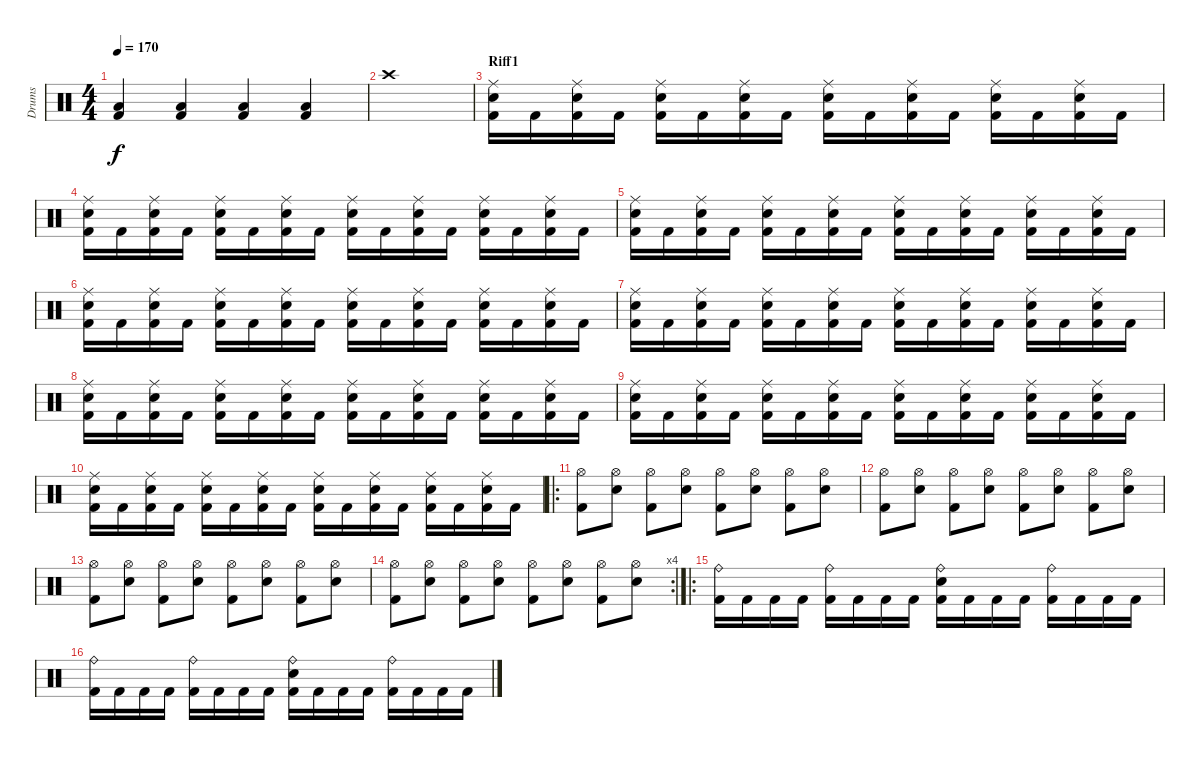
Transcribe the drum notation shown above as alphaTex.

\track ("Drums" "Drums") {instrument percussion}
\staff {score}
\articulation defaults
\ts (4 4)
\tempo 170
\clef neutral
\ks c
("Low Floor Tom (hit)" "Kick (hit) 2").4{dy f} ("Low Floor Tom (hit)" "Kick (hit) 2").4 ("Low Floor Tom (hit)" "Kick (hit) 2").4 ("Low Floor Tom (hit)" "Kick (hit) 2").4 |
"Crash high (hit)".1 |
\section ("" "Riff1")
("Kick (hit) 2" "Snare (hit) 2" "Ride (middle)").16 "Kick (hit) 2".16 ("Kick (hit) 2" "Snare (hit) 2" "Ride (middle)").16 "Kick (hit) 2".16 ("Kick (hit) 2" "Snare (hit) 2" "Ride (middle)").16 "Kick (hit) 2".16 ("Kick (hit) 2" "Snare (hit) 2" "Ride (middle)").16 "Kick (hit) 2".16 ("Kick (hit) 2" "Snare (hit) 2" "Ride (middle)").16 "Kick (hit) 2".16 ("Kick (hit) 2" "Snare (hit) 2" "Ride (middle)").16 "Kick (hit) 2".16 ("Kick (hit) 2" "Snare (hit) 2" "Ride (middle)").16 "Kick (hit) 2".16 ("Kick (hit) 2" "Snare (hit) 2" "Ride (middle)").16 "Kick (hit) 2".16 |
("Kick (hit) 2" "Snare (hit) 2" "Ride (middle)").16 "Kick (hit) 2".16 ("Kick (hit) 2" "Snare (hit) 2" "Ride (middle)").16 "Kick (hit) 2".16 ("Kick (hit) 2" "Snare (hit) 2" "Ride (middle)").16 "Kick (hit) 2".16 ("Kick (hit) 2" "Snare (hit) 2" "Ride (middle)").16 "Kick (hit) 2".16 ("Kick (hit) 2" "Snare (hit) 2" "Ride (middle)").16 "Kick (hit) 2".16 ("Kick (hit) 2" "Snare (hit) 2" "Ride (middle)").16 "Kick (hit) 2".16 ("Kick (hit) 2" "Snare (hit) 2" "Ride (middle)").16 "Kick (hit) 2".16 ("Kick (hit) 2" "Snare (hit) 2" "Ride (middle)").16 "Kick (hit) 2".16 |
("Kick (hit) 2" "Snare (hit) 2" "Ride (middle)").16 "Kick (hit) 2".16 ("Kick (hit) 2" "Snare (hit) 2" "Ride (middle)").16 "Kick (hit) 2".16 ("Kick (hit) 2" "Snare (hit) 2" "Ride (middle)").16 "Kick (hit) 2".16 ("Kick (hit) 2" "Snare (hit) 2" "Ride (middle)").16 "Kick (hit) 2".16 ("Kick (hit) 2" "Snare (hit) 2" "Ride (middle)").16 "Kick (hit) 2".16 ("Kick (hit) 2" "Snare (hit) 2" "Ride (middle)").16 "Kick (hit) 2".16 ("Kick (hit) 2" "Snare (hit) 2" "Ride (middle)").16 "Kick (hit) 2".16 ("Kick (hit) 2" "Snare (hit) 2" "Ride (middle)").16 "Kick (hit) 2".16 |
("Kick (hit) 2" "Snare (hit) 2" "Ride (middle)").16 "Kick (hit) 2".16 ("Kick (hit) 2" "Snare (hit) 2" "Ride (middle)").16 "Kick (hit) 2".16 ("Kick (hit) 2" "Snare (hit) 2" "Ride (middle)").16 "Kick (hit) 2".16 ("Kick (hit) 2" "Snare (hit) 2" "Ride (middle)").16 "Kick (hit) 2".16 ("Kick (hit) 2" "Snare (hit) 2" "Ride (middle)").16 "Kick (hit) 2".16 ("Kick (hit) 2" "Snare (hit) 2" "Ride (middle)").16 "Kick (hit) 2".16 ("Kick (hit) 2" "Snare (hit) 2" "Ride (middle)").16 "Kick (hit) 2".16 ("Kick (hit) 2" "Snare (hit) 2" "Ride (middle)").16 "Kick (hit) 2".16 |
("Kick (hit) 2" "Snare (hit) 2" "Ride (middle)").16 "Kick (hit) 2".16 ("Kick (hit) 2" "Snare (hit) 2" "Ride (middle)").16 "Kick (hit) 2".16 ("Kick (hit) 2" "Snare (hit) 2" "Ride (middle)").16 "Kick (hit) 2".16 ("Kick (hit) 2" "Snare (hit) 2" "Ride (middle)").16 "Kick (hit) 2".16 ("Kick (hit) 2" "Snare (hit) 2" "Ride (middle)").16 "Kick (hit) 2".16 ("Kick (hit) 2" "Snare (hit) 2" "Ride (middle)").16 "Kick (hit) 2".16 ("Kick (hit) 2" "Snare (hit) 2" "Ride (middle)").16 "Kick (hit) 2".16 ("Kick (hit) 2" "Snare (hit) 2" "Ride (middle)").16 "Kick (hit) 2".16 |
("Kick (hit) 2" "Snare (hit) 2" "Ride (middle)").16 "Kick (hit) 2".16 ("Kick (hit) 2" "Snare (hit) 2" "Ride (middle)").16 "Kick (hit) 2".16 ("Kick (hit) 2" "Snare (hit) 2" "Ride (middle)").16 "Kick (hit) 2".16 ("Kick (hit) 2" "Snare (hit) 2" "Ride (middle)").16 "Kick (hit) 2".16 ("Kick (hit) 2" "Snare (hit) 2" "Ride (middle)").16 "Kick (hit) 2".16 ("Kick (hit) 2" "Snare (hit) 2" "Ride (middle)").16 "Kick (hit) 2".16 ("Kick (hit) 2" "Snare (hit) 2" "Ride (middle)").16 "Kick (hit) 2".16 ("Kick (hit) 2" "Snare (hit) 2" "Ride (middle)").16 "Kick (hit) 2".16 |
("Kick (hit) 2" "Snare (hit) 2" "Ride (middle)").16 "Kick (hit) 2".16 ("Kick (hit) 2" "Snare (hit) 2" "Ride (middle)").16 "Kick (hit) 2".16 ("Kick (hit) 2" "Snare (hit) 2" "Ride (middle)").16 "Kick (hit) 2".16 ("Kick (hit) 2" "Snare (hit) 2" "Ride (middle)").16 "Kick (hit) 2".16 ("Kick (hit) 2" "Snare (hit) 2" "Ride (middle)").16 "Kick (hit) 2".16 ("Kick (hit) 2" "Snare (hit) 2" "Ride (middle)").16 "Kick (hit) 2".16 ("Kick (hit) 2" "Snare (hit) 2" "Ride (middle)").16 "Kick (hit) 2".16 ("Kick (hit) 2" "Snare (hit) 2" "Ride (middle)").16 "Kick (hit) 2".16 |
("Kick (hit) 2" "Snare (hit) 2" "Ride (middle)").16 "Kick (hit) 2".16 ("Kick (hit) 2" "Snare (hit) 2" "Ride (middle)").16 "Kick (hit) 2".16 ("Kick (hit) 2" "Snare (hit) 2" "Ride (middle)").16 "Kick (hit) 2".16 ("Kick (hit) 2" "Snare (hit) 2" "Ride (middle)").16 "Kick (hit) 2".16 ("Kick (hit) 2" "Snare (hit) 2" "Ride (middle)").16 "Kick (hit) 2".16 ("Kick (hit) 2" "Snare (hit) 2" "Ride (middle)").16 "Kick (hit) 2".16 ("Kick (hit) 2" "Snare (hit) 2" "Ride (middle)").16 "Kick (hit) 2".16 ("Kick (hit) 2" "Snare (hit) 2" "Ride (middle)").16 "Kick (hit) 2".16 |
\ro
("Kick (hit) 2" "Hi-Hat (open)").8 ("Snare (hit) 2" "Hi-Hat (open)").8 ("Kick (hit) 2" "Hi-Hat (open)").8 ("Snare (hit) 2" "Hi-Hat (open)").8 ("Kick (hit) 2" "Hi-Hat (open)").8 ("Snare (hit) 2" "Hi-Hat (open)").8 ("Kick (hit) 2" "Hi-Hat (open)").8 ("Snare (hit) 2" "Hi-Hat (open)").8 |
("Kick (hit) 2" "Hi-Hat (open)").8 ("Snare (hit) 2" "Hi-Hat (open)").8 ("Kick (hit) 2" "Hi-Hat (open)").8 ("Snare (hit) 2" "Hi-Hat (open)").8 ("Kick (hit) 2" "Hi-Hat (open)").8 ("Snare (hit) 2" "Hi-Hat (open)").8 ("Kick (hit) 2" "Hi-Hat (open)").8 ("Snare (hit) 2" "Hi-Hat (open)").8 |
("Kick (hit) 2" "Hi-Hat (open)").8 ("Snare (hit) 2" "Hi-Hat (open)").8 ("Kick (hit) 2" "Hi-Hat (open)").8 ("Snare (hit) 2" "Hi-Hat (open)").8 ("Kick (hit) 2" "Hi-Hat (open)").8 ("Snare (hit) 2" "Hi-Hat (open)").8 ("Kick (hit) 2" "Hi-Hat (open)").8 ("Snare (hit) 2" "Hi-Hat (open)").8 |
\rc 4
("Kick (hit) 2" "Hi-Hat (open)").8 ("Snare (hit) 2" "Hi-Hat (open)").8 ("Kick (hit) 2" "Hi-Hat (open)").8 ("Snare (hit) 2" "Hi-Hat (open)").8 ("Kick (hit) 2" "Hi-Hat (open)").8 ("Snare (hit) 2" "Hi-Hat (open)").8 ("Kick (hit) 2" "Hi-Hat (open)").8 ("Snare (hit) 2" "Hi-Hat (open)").8 |
\ro
("Kick (hit) 2" "Ride (bell)").16 "Kick (hit) 2".16 "Kick (hit) 2".16 "Kick (hit) 2".16 ("Kick (hit) 2" "Ride (bell)").16 "Kick (hit) 2".16 "Kick (hit) 2".16 "Kick (hit) 2".16 ("Kick (hit) 2" "Snare (hit) 2" "Ride (bell)").16 "Kick (hit) 2".16 "Kick (hit) 2".16 "Kick (hit) 2".16 ("Kick (hit) 2" "Ride (bell)").16 "Kick (hit) 2".16 "Kick (hit) 2".16 "Kick (hit) 2".16 |
("Kick (hit) 2" "Ride (bell)").16 "Kick (hit) 2".16 "Kick (hit) 2".16 "Kick (hit) 2".16 ("Kick (hit) 2" "Ride (bell)").16 "Kick (hit) 2".16 "Kick (hit) 2".16 "Kick (hit) 2".16 ("Kick (hit) 2" "Snare (hit) 2" "Ride (bell)").16 "Kick (hit) 2".16 "Kick (hit) 2".16 "Kick (hit) 2".16 ("Kick (hit) 2" "Ride (bell)").16 "Kick (hit) 2".16 "Kick (hit) 2".16 "Kick (hit) 2".16
